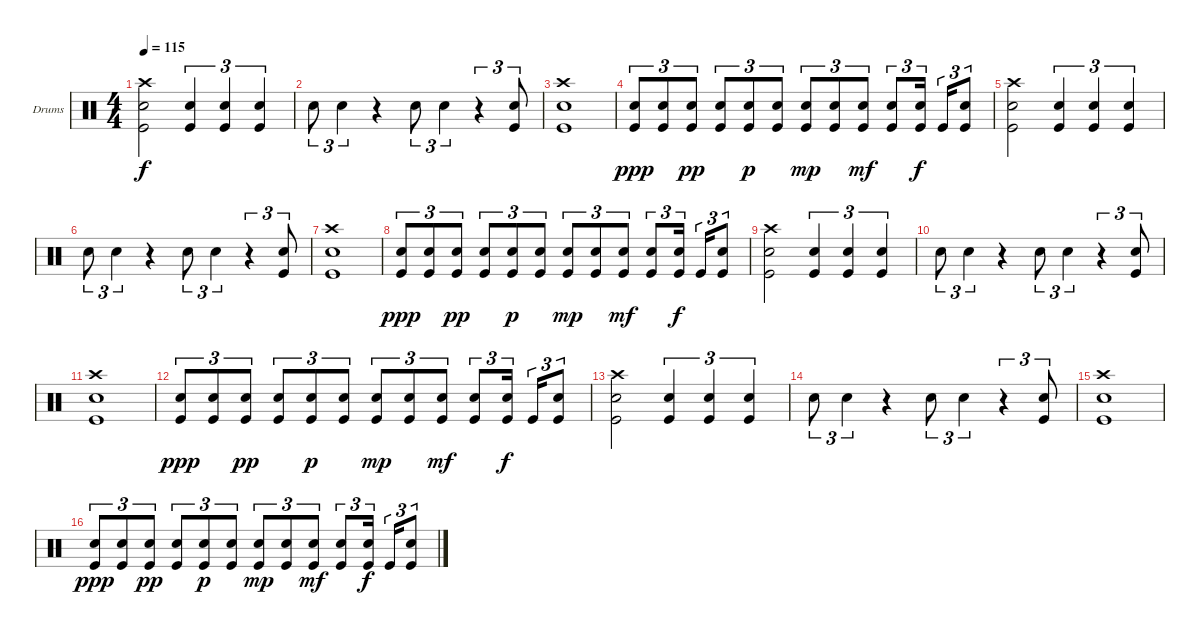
\bracketExtendMode groupsimilarinstruments
\firstSystemTrackNameOrientation horizontal
\otherSystemsTrackNameOrientation horizontal
\track ("Drumkit" "Drums") {instrument percussion}
\staff {score}
\articulation defaults
\ts (4 4)
\tempo 115
\clef neutral
\ks c
("Crash high (hit)" "Kick (hit)" "Snare (hit) 2").2{dy f} ("Snare (hit) 2" "Kick (hit)").4{tu (3 2)} ("Snare (hit) 2" "Kick (hit)").4{tu (3 2)} ("Snare (hit) 2" "Kick (hit)").4{tu (3 2)} |
"Snare (hit) 2".8{tu (3 2)} "Snare (hit) 2".4{tu (3 2)} r.4 "Snare (hit) 2".8{tu (3 2)} "Snare (hit) 2".4{tu (3 2)} r.4{tu (3 2)} ("Snare (hit) 2" "Kick (hit)").8{tu (3 2)} |
("Crash high (hit)" "Kick (hit)" "Snare (hit) 2").1 |
("Kick (hit)" "Snare (hit) 2").8{tu (3 2) dy ppp} ("Kick (hit)" "Snare (hit) 2").8{tu (3 2)} ("Kick (hit)" "Snare (hit) 2").8{tu (3 2) dy pp} ("Kick (hit)" "Snare (hit) 2").8{tu (3 2)} ("Kick (hit)" "Snare (hit) 2").8{tu (3 2) dy p} ("Kick (hit)" "Snare (hit) 2").8{tu (3 2)} ("Kick (hit)" "Snare (hit) 2").8{tu (3 2) dy mp} ("Kick (hit)" "Snare (hit) 2").8{tu (3 2)} ("Kick (hit)" "Snare (hit) 2").8{tu (3 2) dy mf} ("Kick (hit)" "Snare (hit) 2").8{tu (3 2)} ("Kick (hit)" "Snare (hit) 2").16{tu (3 2) dy f} "Kick (hit)".16{tu (3 2)} ("Kick (hit)" "Snare (hit) 2").8{tu (3 2)} |
("Crash high (hit)" "Kick (hit)" "Snare (hit) 2").2 ("Snare (hit) 2" "Kick (hit)").4{tu (3 2)} ("Snare (hit) 2" "Kick (hit)").4{tu (3 2)} ("Snare (hit) 2" "Kick (hit)").4{tu (3 2)} |
"Snare (hit) 2".8{tu (3 2)} "Snare (hit) 2".4{tu (3 2)} r.4 "Snare (hit) 2".8{tu (3 2)} "Snare (hit) 2".4{tu (3 2)} r.4{tu (3 2)} ("Snare (hit) 2" "Kick (hit)").8{tu (3 2)} |
("Crash high (hit)" "Kick (hit)" "Snare (hit) 2").1 |
("Kick (hit)" "Snare (hit) 2").8{tu (3 2) dy ppp} ("Kick (hit)" "Snare (hit) 2").8{tu (3 2)} ("Kick (hit)" "Snare (hit) 2").8{tu (3 2) dy pp} ("Kick (hit)" "Snare (hit) 2").8{tu (3 2)} ("Kick (hit)" "Snare (hit) 2").8{tu (3 2) dy p} ("Kick (hit)" "Snare (hit) 2").8{tu (3 2)} ("Kick (hit)" "Snare (hit) 2").8{tu (3 2) dy mp} ("Kick (hit)" "Snare (hit) 2").8{tu (3 2)} ("Kick (hit)" "Snare (hit) 2").8{tu (3 2) dy mf} ("Kick (hit)" "Snare (hit) 2").8{tu (3 2)} ("Kick (hit)" "Snare (hit) 2").16{tu (3 2) dy f} "Kick (hit)".16{tu (3 2)} ("Kick (hit)" "Snare (hit) 2").8{tu (3 2)} |
("Crash high (hit)" "Kick (hit)" "Snare (hit) 2").2 ("Snare (hit) 2" "Kick (hit)").4{tu (3 2)} ("Snare (hit) 2" "Kick (hit)").4{tu (3 2)} ("Snare (hit) 2" "Kick (hit)").4{tu (3 2)} |
"Snare (hit) 2".8{tu (3 2)} "Snare (hit) 2".4{tu (3 2)} r.4 "Snare (hit) 2".8{tu (3 2)} "Snare (hit) 2".4{tu (3 2)} r.4{tu (3 2)} ("Snare (hit) 2" "Kick (hit)").8{tu (3 2)} |
("Crash high (hit)" "Kick (hit)" "Snare (hit) 2").1 |
("Kick (hit)" "Snare (hit) 2").8{tu (3 2) dy ppp} ("Kick (hit)" "Snare (hit) 2").8{tu (3 2)} ("Kick (hit)" "Snare (hit) 2").8{tu (3 2) dy pp} ("Kick (hit)" "Snare (hit) 2").8{tu (3 2)} ("Kick (hit)" "Snare (hit) 2").8{tu (3 2) dy p} ("Kick (hit)" "Snare (hit) 2").8{tu (3 2)} ("Kick (hit)" "Snare (hit) 2").8{tu (3 2) dy mp} ("Kick (hit)" "Snare (hit) 2").8{tu (3 2)} ("Kick (hit)" "Snare (hit) 2").8{tu (3 2) dy mf} ("Kick (hit)" "Snare (hit) 2").8{tu (3 2)} ("Kick (hit)" "Snare (hit) 2").16{tu (3 2) dy f} "Kick (hit)".16{tu (3 2)} ("Kick (hit)" "Snare (hit) 2").8{tu (3 2)} |
("Crash high (hit)" "Kick (hit)" "Snare (hit) 2").2 ("Snare (hit) 2" "Kick (hit)").4{tu (3 2)} ("Snare (hit) 2" "Kick (hit)").4{tu (3 2)} ("Snare (hit) 2" "Kick (hit)").4{tu (3 2)} |
"Snare (hit) 2".8{tu (3 2)} "Snare (hit) 2".4{tu (3 2)} r.4 "Snare (hit) 2".8{tu (3 2)} "Snare (hit) 2".4{tu (3 2)} r.4{tu (3 2)} ("Snare (hit) 2" "Kick (hit)").8{tu (3 2)} |
("Crash high (hit)" "Kick (hit)" "Snare (hit) 2").1 |
("Kick (hit)" "Snare (hit) 2").8{tu (3 2) dy ppp} ("Kick (hit)" "Snare (hit) 2").8{tu (3 2)} ("Kick (hit)" "Snare (hit) 2").8{tu (3 2) dy pp} ("Kick (hit)" "Snare (hit) 2").8{tu (3 2)} ("Kick (hit)" "Snare (hit) 2").8{tu (3 2) dy p} ("Kick (hit)" "Snare (hit) 2").8{tu (3 2)} ("Kick (hit)" "Snare (hit) 2").8{tu (3 2) dy mp} ("Kick (hit)" "Snare (hit) 2").8{tu (3 2)} ("Kick (hit)" "Snare (hit) 2").8{tu (3 2) dy mf} ("Kick (hit)" "Snare (hit) 2").8{tu (3 2)} ("Kick (hit)" "Snare (hit) 2").16{tu (3 2) dy f} "Kick (hit)".16{tu (3 2)} ("Kick (hit)" "Snare (hit) 2").8{tu (3 2)}
